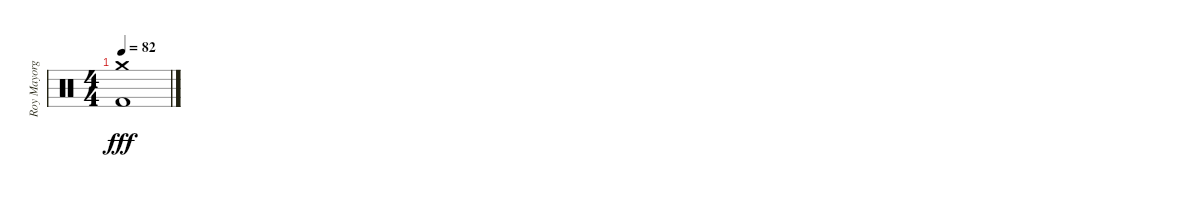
\track ("Roy Mayorga" "Roy Mayorg") {instrument percussion}
\staff {score}
\articulation defaults
\ts (4 4)
\tempo 82
\clef neutral
\ks c
("Crash medium (hit)" "Kick (hit) 2").1{dy fff}
